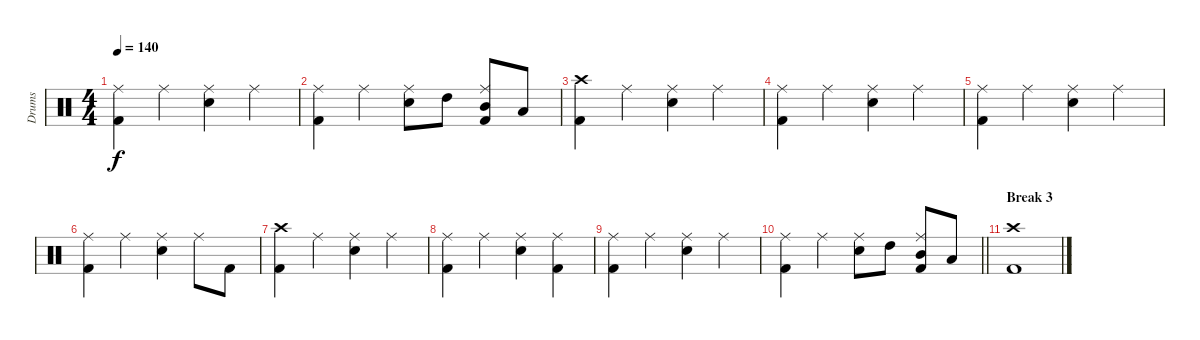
\track ("Drums" "Drums") {instrument percussion}
\staff {score}
\articulation defaults
\ts (4 4)
\tempo 140
\clef neutral
\ks c
("Kick (hit) 2" "Ride (middle)").4{dy f} "Ride (middle)".4 ("Electric Snare (hit)" "Ride (middle)").4 "Ride (middle)".4 |
("Kick (hit) 2" "Ride (middle)").4 "Ride (middle)".4 ("Electric Snare (hit)" "Ride (middle)").8 "High Tom (hit)".8 ("Kick (hit) 2" "Ride (middle)" "Mid Tom (hit)").8 "Low Tom (hit)".8 |
("Kick (hit) 2" "Crash high (hit)").4 "Ride (middle)".4 ("Electric Snare (hit)" "Ride (middle)").4 "Ride (middle)".4 |
("Kick (hit) 2" "Ride (middle)").4 "Ride (middle)".4 ("Electric Snare (hit)" "Ride (middle)").4 "Ride (middle)".4 |
("Kick (hit) 2" "Ride (middle)").4 "Ride (middle)".4 ("Electric Snare (hit)" "Ride (middle)").4 "Ride (middle)".4 |
("Kick (hit) 2" "Ride (middle)").4 "Ride (middle)".4 ("Electric Snare (hit)" "Ride (middle)").4 "Ride (middle)".8 "Kick (hit) 2".8 |
("Kick (hit) 2" "Crash high (hit)").4 "Ride (middle)".4 ("Electric Snare (hit)" "Ride (middle)").4 "Ride (middle)".4 |
("Kick (hit) 2" "Ride (middle)").4 "Ride (middle)".4 ("Electric Snare (hit)" "Ride (middle)").4 ("Kick (hit) 2" "Ride (middle)").4 |
("Kick (hit) 2" "Ride (middle)").4 "Ride (middle)".4 ("Electric Snare (hit)" "Ride (middle)").4 "Ride (middle)".4 |
\barLineRight lightlight
("Kick (hit) 2" "Ride (middle)").4 "Ride (middle)".4 ("Electric Snare (hit)" "Ride (middle)").8 "High Tom (hit)".8 ("Kick (hit) 2" "Ride (middle)" "Mid Tom (hit)").8 "Low Tom (hit)".8 |
\section ("" "Break 3")
("Kick (hit) 2" "Crash high (hit)").1
